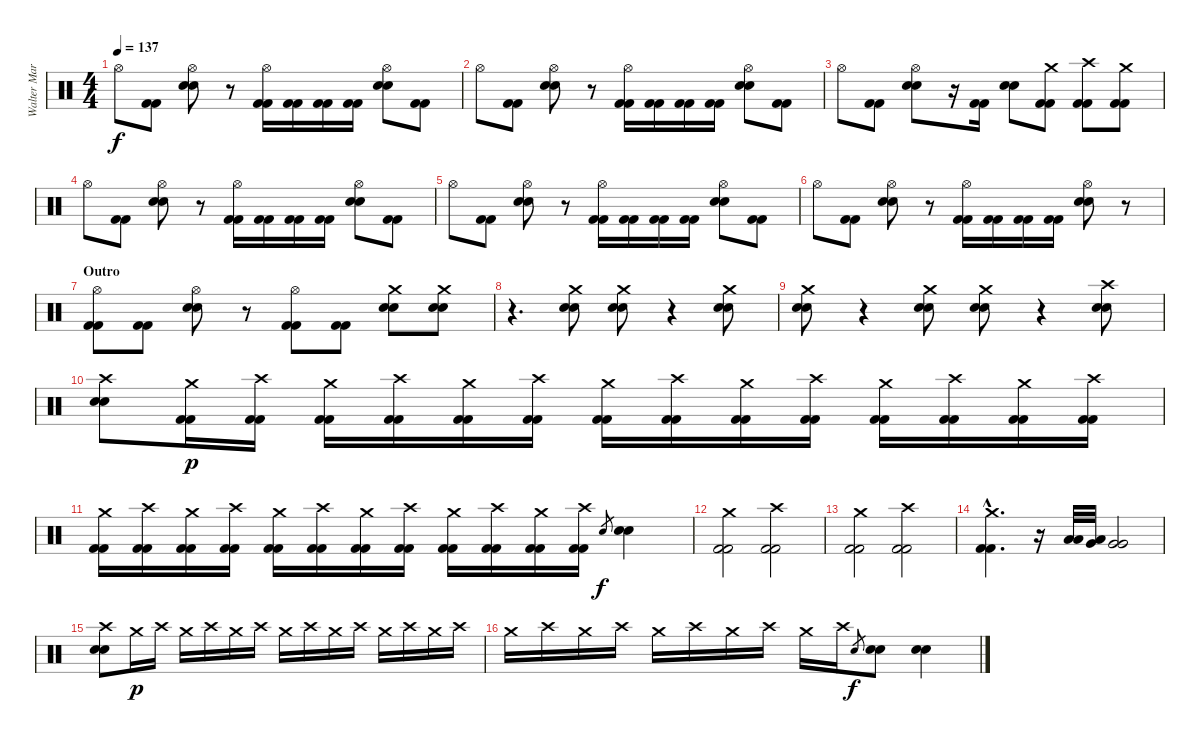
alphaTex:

\track ("Walter Martinez (bateria)" "Walter Mar") {instrument percussion}
\staff {score}
\articulation defaults
\ts (4 4)
\tempo 137
\clef neutral
\ks c "Hi-Hat (open)".8{dy f}
("Kick (hit) 2" "Kick (hit) 2").8 ("Hi-Hat (open)" "Snare (hit) 2" "Snare (hit) 2").8 r.8 ("Hi-Hat (open)" "Kick (hit) 2" "Kick (hit) 2").16 ("Kick (hit) 2" "Kick (hit) 2").16 ("Kick (hit) 2" "Kick (hit) 2").16 ("Kick (hit) 2" "Kick (hit) 2").16 ("Hi-Hat (open)" "Snare (hit) 2" "Snare (hit) 2").8 ("Kick (hit) 2" "Kick (hit) 2").8 |
"Hi-Hat (open)".8 ("Kick (hit) 2" "Kick (hit) 2").8 ("Hi-Hat (open)" "Snare (hit) 2" "Snare (hit) 2").8 r.8 ("Hi-Hat (open)" "Kick (hit) 2" "Kick (hit) 2").16 ("Kick (hit) 2" "Kick (hit) 2").16 ("Kick (hit) 2" "Kick (hit) 2").16 ("Kick (hit) 2" "Kick (hit) 2").16 ("Hi-Hat (open)" "Snare (hit) 2" "Snare (hit) 2").8 ("Kick (hit) 2" "Kick (hit) 2").8 |
"Hi-Hat (open)".8 ("Kick (hit) 2" "Kick (hit) 2").8 ("Hi-Hat (open)" "Snare (hit) 2" "Snare (hit) 2").8 r.16 ("Kick (hit) 2" "Kick (hit) 2").16 ("Snare (hit) 2" "Snare (hit) 2").8 ("Crash medium (hit)" "Kick (hit) 2" "Kick (hit) 2").8 ("Crash high (hit)" "Kick (hit) 2" "Kick (hit) 2").8 ("Crash medium (hit)" "Kick (hit) 2" "Kick (hit) 2").8 |
"Hi-Hat (open)".8 ("Kick (hit) 2" "Kick (hit) 2").8 ("Hi-Hat (open)" "Snare (hit) 2" "Snare (hit) 2").8 r.8 ("Hi-Hat (open)" "Kick (hit) 2" "Kick (hit) 2").16 ("Kick (hit) 2" "Kick (hit) 2").16 ("Kick (hit) 2" "Kick (hit) 2").16 ("Kick (hit) 2" "Kick (hit) 2").16 ("Hi-Hat (open)" "Snare (hit) 2" "Snare (hit) 2").8 ("Kick (hit) 2" "Kick (hit) 2").8 |
"Hi-Hat (open)".8 ("Kick (hit) 2" "Kick (hit) 2").8 ("Hi-Hat (open)" "Snare (hit) 2" "Snare (hit) 2").8 r.8 ("Hi-Hat (open)" "Kick (hit) 2" "Kick (hit) 2").16 ("Kick (hit) 2" "Kick (hit) 2").16 ("Kick (hit) 2" "Kick (hit) 2").16 ("Kick (hit) 2" "Kick (hit) 2").16 ("Hi-Hat (open)" "Snare (hit) 2" "Snare (hit) 2").8 ("Kick (hit) 2" "Kick (hit) 2").8 |
"Hi-Hat (open)".8 ("Kick (hit) 2" "Kick (hit) 2").8 ("Hi-Hat (open)" "Snare (hit) 2" "Snare (hit) 2").8 r.8 ("Hi-Hat (open)" "Kick (hit) 2" "Kick (hit) 2").16 ("Kick (hit) 2" "Kick (hit) 2").16 ("Kick (hit) 2" "Kick (hit) 2").16 ("Kick (hit) 2" "Kick (hit) 2").16 ("Hi-Hat (open)" "Snare (hit) 2" "Snare (hit) 2").8 r.8 |
\section ("" "Outro")
("Hi-Hat (open)" "Kick (hit) 2" "Kick (hit) 2").8 ("Kick (hit) 2" "Kick (hit) 2").8 ("Hi-Hat (open)" "Snare (hit) 2" "Snare (hit) 2").8 r.8 ("Hi-Hat (open)" "Kick (hit) 2" "Kick (hit) 2").8 ("Kick (hit) 2" "Kick (hit) 2").8 ("Crash medium (hit)" "Snare (hit) 2" "Snare (hit) 2").8 ("Crash medium (hit)" "Snare (hit) 2" "Snare (hit) 2").8 |
r.4{d} ("Crash medium (hit)" "Snare (hit) 2" "Snare (hit) 2").8 ("Crash medium (hit)" "Snare (hit) 2" "Snare (hit) 2").8 r.4 ("Crash medium (hit)" "Snare (hit) 2" "Snare (hit) 2").8 |
("Crash medium (hit)" "Snare (hit) 2" "Snare (hit) 2").8 r.4 ("Crash medium (hit)" "Snare (hit) 2" "Snare (hit) 2").8 ("Crash medium (hit)" "Snare (hit) 2" "Snare (hit) 2").8 r.4 ("Crash high (hit)" "Snare (hit) 2" "Snare (hit) 2").8 |
("Crash high (hit)" "Snare (hit) 2" "Snare (hit) 2").8 ("Crash medium (hit)" "Kick (hit) 2" "Kick (hit) 2").16{dy p} ("Crash high (hit)" "Kick (hit) 2" "Kick (hit) 2").16 ("Crash medium (hit)" "Kick (hit) 2" "Kick (hit) 2").16 ("Crash high (hit)" "Kick (hit) 2" "Kick (hit) 2").16 ("Crash medium (hit)" "Kick (hit) 2" "Kick (hit) 2").16 ("Crash high (hit)" "Kick (hit) 2" "Kick (hit) 2").16 ("Crash medium (hit)" "Kick (hit) 2" "Kick (hit) 2").16 ("Crash high (hit)" "Kick (hit) 2" "Kick (hit) 2").16 ("Crash medium (hit)" "Kick (hit) 2" "Kick (hit) 2").16 ("Crash high (hit)" "Kick (hit) 2" "Kick (hit) 2").16 ("Crash medium (hit)" "Kick (hit) 2" "Kick (hit) 2").16 ("Crash high (hit)" "Kick (hit) 2" "Kick (hit) 2").16 ("Crash medium (hit)" "Kick (hit) 2" "Kick (hit) 2").16 ("Crash high (hit)" "Kick (hit) 2" "Kick (hit) 2").16 |
("Crash medium (hit)" "Kick (hit) 2" "Kick (hit) 2").16 ("Crash high (hit)" "Kick (hit) 2" "Kick (hit) 2").16 ("Crash medium (hit)" "Kick (hit) 2" "Kick (hit) 2").16 ("Crash high (hit)" "Kick (hit) 2" "Kick (hit) 2").16 ("Crash medium (hit)" "Kick (hit) 2" "Kick (hit) 2").16 ("Crash high (hit)" "Kick (hit) 2" "Kick (hit) 2").16 ("Crash medium (hit)" "Kick (hit) 2" "Kick (hit) 2").16 ("Crash high (hit)" "Kick (hit) 2" "Kick (hit) 2").16 ("Crash medium (hit)" "Kick (hit) 2" "Kick (hit) 2").16 ("Crash high (hit)" "Kick (hit) 2" "Kick (hit) 2").16 ("Crash medium (hit)" "Kick (hit) 2" "Kick (hit) 2").16 ("Crash high (hit)" "Kick (hit) 2" "Kick (hit) 2").16 "Snare (hit) 2".8{gr dy f} ("Snare (hit) 2" "Snare (hit) 2").4 |
("Crash medium (hit)" "Kick (hit) 2" "Kick (hit) 2").2 ("Crash high (hit)" "Kick (hit) 2" "Kick (hit) 2").2 |
("Crash medium (hit)" "Kick (hit) 2" "Kick (hit) 2").2 ("Crash high (hit)" "Kick (hit) 2" "Kick (hit) 2").2 |
("Crash medium (hit)"{hac} "Kick (hit) 2"{hac} "Kick (hit) 2"{hac}).4{d} r.16 ("Low Tom (hit)" "Low Tom (hit)").32 ("Very Low Tom (hit)" "Low Tom (hit)").32 ("Very Low Tom (hit)" "Very Low Tom (hit)").2 |
("Crash high (hit)" "Snare (hit) 2" "Snare (hit) 2").8 "Crash medium (hit)".16{dy p} "Crash high (hit)".16 "Crash medium (hit)".16 "Crash high (hit)".16 "Crash medium (hit)".16 "Crash high (hit)".16 "Crash medium (hit)".16 "Crash high (hit)".16 "Crash medium (hit)".16 "Crash high (hit)".16 "Crash medium (hit)".16 "Crash high (hit)".16 "Crash medium (hit)".16 "Crash high (hit)".16 |
"Crash medium (hit)".16 "Crash high (hit)".16 "Crash medium (hit)".16 "Crash high (hit)".16 "Crash medium (hit)".16 "Crash high (hit)".16 "Crash medium (hit)".16 "Crash high (hit)".16 "Crash medium (hit)".16 "Crash high (hit)".16 "Snare (hit) 2".8{gr dy f} ("Snare (hit) 2" "Snare (hit) 2").8 ("Snare (hit) 2" "Snare (hit) 2").4
